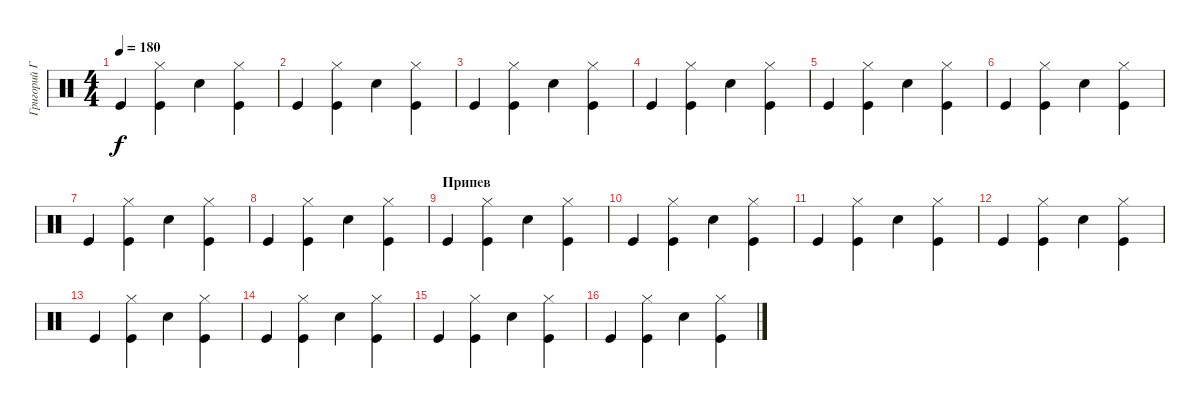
\track ("Григорий Габерман" "Григорий Г") {instrument percussion}
\staff {score}
\articulation defaults
\ts (4 4)
\tempo 180
\clef neutral
\ks c "Kick (hit)".4{dy f}
("Kick (hit)" "Hi-Hat (closed)").4 "Snare (hit) 2".4 ("Kick (hit)" "Hi-Hat (closed)").4 |
"Kick (hit)".4 ("Kick (hit)" "Hi-Hat (closed)").4 "Snare (hit) 2".4 ("Kick (hit)" "Hi-Hat (closed)").4 |
"Kick (hit)".4 ("Kick (hit)" "Hi-Hat (closed)").4 "Snare (hit) 2".4 ("Kick (hit)" "Hi-Hat (closed)").4 |
"Kick (hit)".4 ("Kick (hit)" "Hi-Hat (closed)").4 "Snare (hit) 2".4 ("Kick (hit)" "Hi-Hat (closed)").4 |
"Kick (hit)".4 ("Kick (hit)" "Hi-Hat (closed)").4 "Snare (hit) 2".4 ("Kick (hit)" "Hi-Hat (closed)").4 |
"Kick (hit)".4 ("Kick (hit)" "Hi-Hat (closed)").4 "Snare (hit) 2".4 ("Kick (hit)" "Hi-Hat (closed)").4 |
"Kick (hit)".4 ("Kick (hit)" "Hi-Hat (closed)").4 "Snare (hit) 2".4 ("Kick (hit)" "Hi-Hat (closed)").4 |
"Kick (hit)".4 ("Kick (hit)" "Hi-Hat (closed)").4 "Snare (hit) 2".4 ("Kick (hit)" "Hi-Hat (closed)").4 |
\section ("" "Припев")
"Kick (hit)".4 ("Kick (hit)" "Hi-Hat (closed)").4 "Snare (hit) 2".4 ("Kick (hit)" "Hi-Hat (closed)").4 |
"Kick (hit)".4 ("Kick (hit)" "Hi-Hat (closed)").4 "Snare (hit) 2".4 ("Kick (hit)" "Hi-Hat (closed)").4 |
"Kick (hit)".4 ("Kick (hit)" "Hi-Hat (closed)").4 "Snare (hit) 2".4 ("Kick (hit)" "Hi-Hat (closed)").4 |
"Kick (hit)".4 ("Kick (hit)" "Hi-Hat (closed)").4 "Snare (hit) 2".4 ("Kick (hit)" "Hi-Hat (closed)").4 |
"Kick (hit)".4 ("Kick (hit)" "Hi-Hat (closed)").4 "Snare (hit) 2".4 ("Kick (hit)" "Hi-Hat (closed)").4 |
"Kick (hit)".4 ("Kick (hit)" "Hi-Hat (closed)").4 "Snare (hit) 2".4 ("Kick (hit)" "Hi-Hat (closed)").4 |
"Kick (hit)".4 ("Kick (hit)" "Hi-Hat (closed)").4 "Snare (hit) 2".4 ("Kick (hit)" "Hi-Hat (closed)").4 |
"Kick (hit)".4 ("Kick (hit)" "Hi-Hat (closed)").4 "Snare (hit) 2".4 ("Kick (hit)" "Hi-Hat (closed)").4
